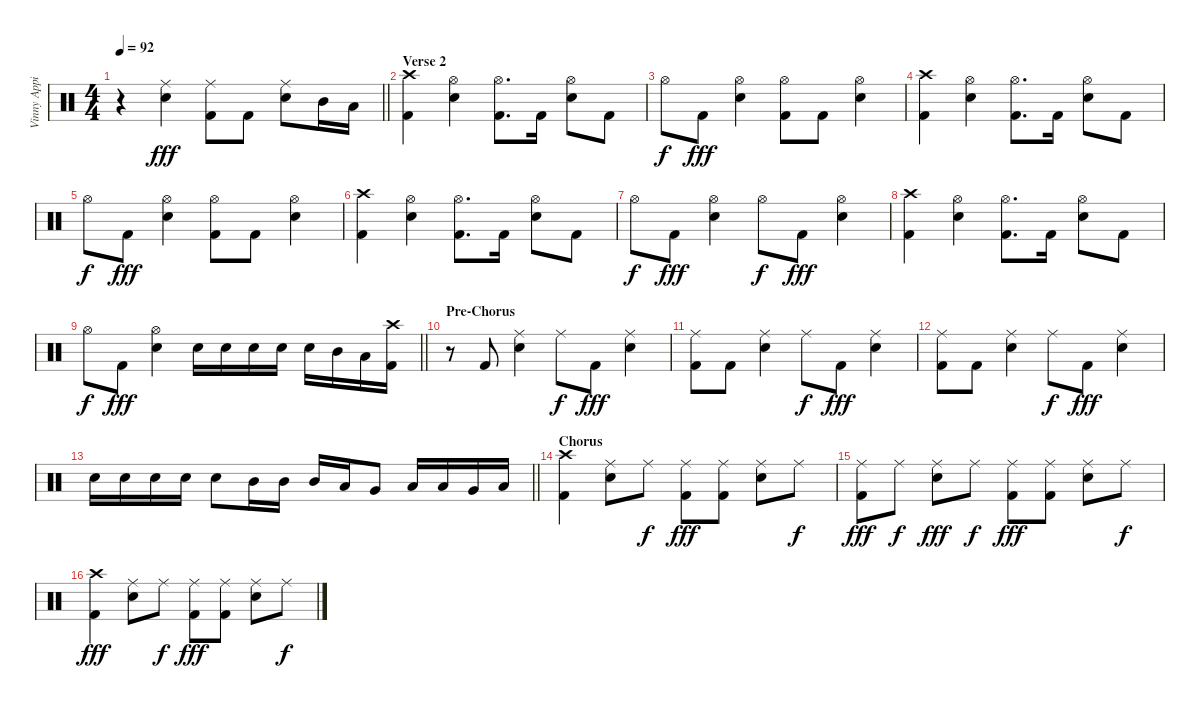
\track ("Vinny Appice" "Vinny Appi") {instrument percussion}
\staff {score}
\articulation defaults
\ts (4 4)
\tempo 92
\clef neutral
\barLineRight lightlight
\ks c
r.4{dy fff} ("Ride (middle)" "Snare (hit) 2").4 ("Ride (middle)" "Kick (hit) 2").8 "Kick (hit) 2".8 ("Ride (middle)" "Snare (hit) 2").8 "Mid Tom (hit)".16 "Low Tom (hit)".16 |
\section ("" "Verse 2")
("Crash high (hit)" "Kick (hit) 2").4 ("Hi-Hat (open)" "Snare (hit) 2").4 ("Hi-Hat (open)" "Kick (hit) 2").8{d} "Kick (hit) 2".16 ("Hi-Hat (open)" "Snare (hit) 2").8 "Kick (hit) 2".8 |
"Hi-Hat (open)".8{dy f} "Kick (hit) 2".8{dy fff} ("Hi-Hat (open)" "Snare (hit) 2").4 ("Hi-Hat (open)" "Kick (hit) 2").8 "Kick (hit) 2".8 ("Hi-Hat (open)" "Snare (hit) 2").4 |
("Crash high (hit)" "Kick (hit) 2").4 ("Hi-Hat (open)" "Snare (hit) 2").4 ("Hi-Hat (open)" "Kick (hit) 2").8{d} "Kick (hit) 2".16 ("Hi-Hat (open)" "Snare (hit) 2").8 "Kick (hit) 2".8 |
"Hi-Hat (open)".8{dy f} "Kick (hit) 2".8{dy fff} ("Hi-Hat (open)" "Snare (hit) 2").4 ("Hi-Hat (open)" "Kick (hit) 2").8 "Kick (hit) 2".8 ("Hi-Hat (open)" "Snare (hit) 2").4 |
("Crash high (hit)" "Kick (hit) 2").4 ("Hi-Hat (open)" "Snare (hit) 2").4 ("Hi-Hat (open)" "Kick (hit) 2").8{d} "Kick (hit) 2".16 ("Hi-Hat (open)" "Snare (hit) 2").8 "Kick (hit) 2".8 |
"Hi-Hat (open)".8{dy f} "Kick (hit) 2".8{dy fff} ("Hi-Hat (open)" "Snare (hit) 2").4 "Hi-Hat (open)".8{dy f} "Kick (hit) 2".8{dy fff} ("Hi-Hat (open)" "Snare (hit) 2").4 |
("Crash high (hit)" "Kick (hit) 2").4 ("Hi-Hat (open)" "Snare (hit) 2").4 ("Hi-Hat (open)" "Kick (hit) 2").8{d} "Kick (hit) 2".16 ("Hi-Hat (open)" "Snare (hit) 2").8 "Kick (hit) 2".8 |
\barLineRight lightlight "Hi-Hat (open)".8{dy f} "Kick (hit) 2".8{dy fff}
("Hi-Hat (open)" "Snare (hit) 2").4 "Snare (hit) 2".16 "Snare (hit) 2".16 "Snare (hit) 2".16 "Snare (hit) 2".16 "Snare (hit) 2".16 "Mid Tom (hit)".16 "Low Tom (hit)".16 ("Crash high (hit)" "Kick (hit) 2").16 |
\section ("" "Pre-Chorus")
r.8 "Kick (hit) 2".8 ("Ride (middle)" "Snare (hit) 2").4 "Ride (middle)".8{dy f} "Kick (hit) 2".8{dy fff} ("Ride (middle)" "Snare (hit) 2").4 |
("Ride (middle)" "Kick (hit) 2").8 "Kick (hit) 2".8 ("Ride (middle)" "Snare (hit) 2").4 "Ride (middle)".8{dy f} "Kick (hit) 2".8{dy fff} ("Ride (middle)" "Snare (hit) 2").4 |
("Ride (middle)" "Kick (hit) 2").8 "Kick (hit) 2".8 ("Ride (middle)" "Snare (hit) 2").4 "Ride (middle)".8{dy f} "Kick (hit) 2".8{dy fff} ("Ride (middle)" "Snare (hit) 2").4 |
\barLineRight lightlight "Snare (hit) 2".16 "Snare (hit) 2".16 "Snare (hit) 2".16 "Snare (hit) 2".16 "Snare (hit) 2".8 "Mid Tom (hit)".16 "Mid Tom (hit)".16 "Mid Tom (hit)".16 "Low Tom (hit)".16 "Very Low Tom (hit)".8 "Low Tom (hit)".16 "Low Tom (hit)".16 "Very Low Tom (hit)".16 "Low Floor Tom (hit)".16
|
\section ("" "Chorus ")
("Crash high (hit)" "Kick (hit) 2").4 ("Ride (middle)" "Snare (hit) 2").8 "Ride (middle)".8{dy f} ("Ride (middle)" "Kick (hit) 2").8{dy fff} ("Ride (middle)" "Kick (hit) 2").8 ("Ride (middle)" "Snare (hit) 2").8 "Ride (middle)".8{dy f} |
("Ride (middle)" "Kick (hit) 2").8{dy fff} "Ride (middle)".8{dy f} ("Ride (middle)" "Snare (hit) 2").8{dy fff} "Ride (middle)".8{dy f} ("Ride (middle)" "Kick (hit) 2").8{dy fff} ("Ride (middle)" "Kick (hit) 2").8 ("Ride (middle)" "Snare (hit) 2").8 "Ride (middle)".8{dy f} |
("Crash high (hit)" "Kick (hit) 2").4{dy fff} ("Ride (middle)" "Snare (hit) 2").8 "Ride (middle)".8{dy f} ("Ride (middle)" "Kick (hit) 2").8{dy fff} ("Ride (middle)" "Kick (hit) 2").8 ("Ride (middle)" "Snare (hit) 2").8 "Ride (middle)".8{dy f}
